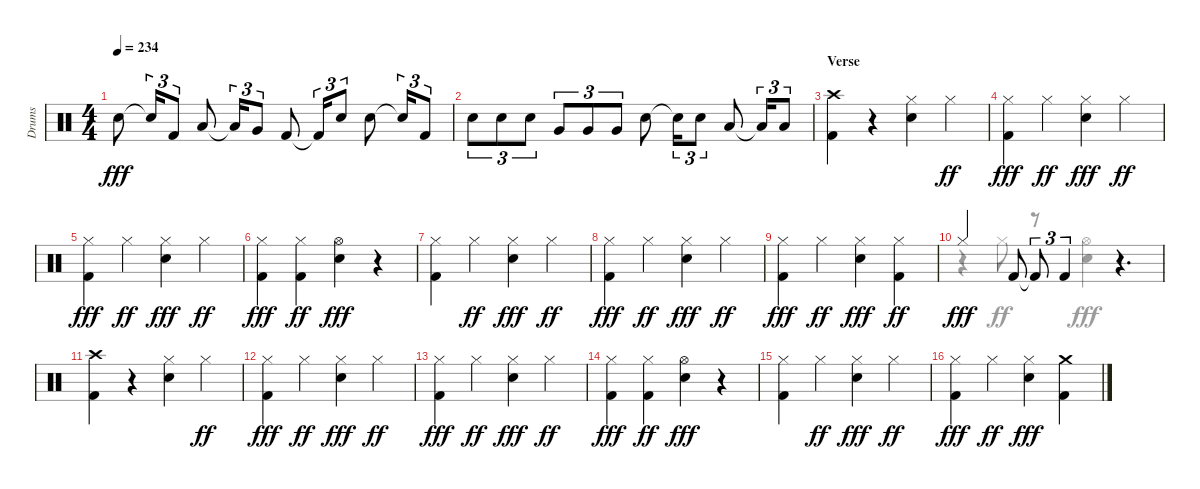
\track ("Drums" "Drums") {instrument percussion}
\staff {score}
\articulation defaults
\voice
\ts (4 4)
\tempo 234
\clef neutral
\ks aminor "Snare (hit) 2".8{dy fff} "Snare (hit) 2"{t}.16{tu (3 2)} "Kick (hit) 2".8{tu (3 2)} "Low Tom (hit)".8 "Low Tom (hit)"{t}.16{tu (3 2)} "Very Low Tom (hit)".8{tu (3 2)} "Kick (hit) 2".8 "Kick (hit) 2"{t}.16{tu (3 2)} "Snare (hit) 2".8{tu (3 2)} "Snare (hit) 2".8 "Snare (hit) 2"{t}.16{tu (3 2)} "Kick (hit) 2".8{tu (3 2)}
|
"Snare (hit) 2".8{tu (3 2)} "Snare (hit) 2".8{tu (3 2)} "Snare (hit) 2".8{tu (3 2)} "Very Low Tom (hit)".8{tu (3 2)} "Very Low Tom (hit)".8{tu (3 2)} "Very Low Tom (hit)".8{tu (3 2)} "Snare (hit) 2".8 "Snare (hit) 2"{t}.16{tu (3 2)} "Snare (hit) 2".8{tu (3 2)} "Low Floor Tom (hit)".8 "Low Floor Tom (hit)"{t}.16{tu (3 2)} "Low Floor Tom (hit)".8{tu (3 2)} |
\section ("" "Verse")
("Crash high (hit)" "Kick (hit) 2").4 r.4 ("Hi-Hat (closed)" "Snare (hit) 2").4 "Hi-Hat (closed)".4{dy ff} |
("Kick (hit) 2" "Hi-Hat (closed)").4{dy fff} "Hi-Hat (closed)".4{dy ff} ("Hi-Hat (closed)" "Snare (hit) 2").4{dy fff} "Hi-Hat (closed)".4{dy ff} |
("Kick (hit) 2" "Hi-Hat (closed)").4{dy fff} "Hi-Hat (closed)".4{dy ff} ("Snare (hit) 2" "Hi-Hat (closed)").4{dy fff} "Hi-Hat (closed)".4{dy ff} |
("Kick (hit) 2" "Hi-Hat (closed)").4{dy fff} ("Kick (hit) 2" "Hi-Hat (closed)").4{dy ff} ("Snare (hit) 2" "Hi-Hat (open)").4{dy fff} r.4 |
("Hi-Hat (closed)" "Kick (hit) 2").4 "Hi-Hat (closed)".4{dy ff} ("Hi-Hat (closed)" "Snare (hit) 2").4{dy fff} "Hi-Hat (closed)".4{dy ff} |
("Kick (hit) 2" "Hi-Hat (closed)").4{dy fff} "Hi-Hat (closed)".4{dy ff} ("Snare (hit) 2" "Hi-Hat (closed)").4{dy fff} "Hi-Hat (closed)".4{dy ff} |
("Kick (hit) 2" "Hi-Hat (closed)").4{dy fff} "Hi-Hat (closed)".4{dy ff} ("Snare (hit) 2" "Hi-Hat (closed)").4{dy fff} ("Kick (hit) 2" "Hi-Hat (closed)").4{dy ff} |
"Hi-Hat (closed)".4{dy fff} "Kick (hit) 2".8 "Kick (hit) 2"{t}.8{tu (3 2)} "Kick (hit) 2".4{tu (3 2)} r.4{d} |
("Kick (hit) 2" "Crash high (hit)").4 r.4 ("Hi-Hat (closed)" "Snare (hit) 2").4 "Hi-Hat (closed)".4{dy ff} |
("Kick (hit) 2" "Hi-Hat (closed)").4{dy fff} "Hi-Hat (closed)".4{dy ff} ("Snare (hit) 2" "Hi-Hat (closed)").4{dy fff} "Hi-Hat (closed)".4{dy ff} |
("Hi-Hat (closed)" "Kick (hit) 2").4{dy fff} "Hi-Hat (closed)".4{dy ff} ("Hi-Hat (closed)" "Snare (hit) 2").4{dy fff} "Hi-Hat (closed)".4{dy ff} |
("Kick (hit) 2" "Hi-Hat (closed)").4{dy fff} ("Kick (hit) 2" "Hi-Hat (closed)").4{dy ff} ("Hi-Hat (open)" "Snare (hit) 2").4{dy fff} r.4 |
("Kick (hit) 2" "Hi-Hat (closed)").4 "Hi-Hat (closed)".4{dy ff} ("Snare (hit) 2" "Hi-Hat (closed)").4{dy fff} "Hi-Hat (closed)".4{dy ff} |
("Kick (hit) 2" "Hi-Hat (closed)").4{dy fff} "Hi-Hat (closed)".4{dy ff} ("Snare (hit) 2" "Hi-Hat (closed)").4{dy fff} ("Kick (hit) 2" "Crash medium (hit)").4
\voice
\clef neutral
\ottava regular
\simile none
\ks aminor
|
|
|
|
|
|
|
|
|
r.4 "Hi-Hat (closed)".8{dy ff} r.8 ("Hi-Hat (open)" "Snare (hit) 2").4{dy fff} |
|
|
|
|
|
